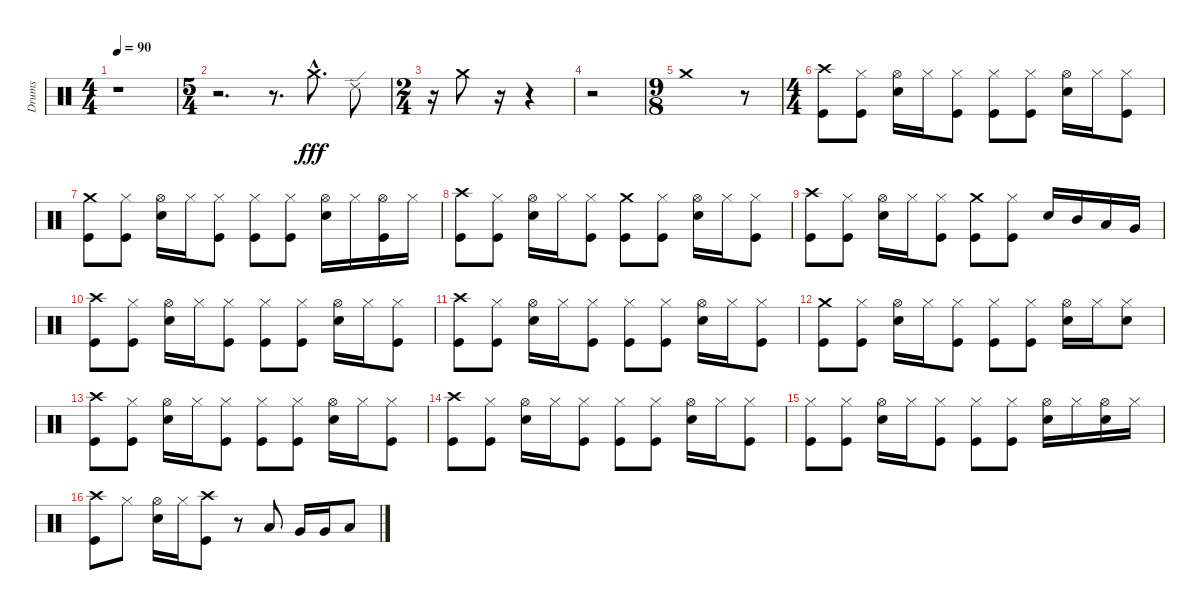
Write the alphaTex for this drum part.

\track ("Drums" "Drums") {instrument percussion}
\staff {score}
\articulation defaults
\ts (4 4)
\tempo 90
\clef neutral
\ks c
r.1{dy fff} |
\ts (5 4)
r.2{d} r.8{d} "Crash medium (hit)"{hac}.8{d} "Ride (edge) 2".8 |
\ts (2 4)
r.16 "Crash medium (hit)".8 r.16 r.4 |
r.2 |
\ts (9 8)
"Crash medium (hit)".1 r.8 |
\ts (4 4)
("Crash high (hit)" "Kick (hit)").8 ("Hi-Hat (closed)" "Kick (hit)").8 ("Hi-Hat (open)" "Snare (hit) 2").16 "Hi-Hat (closed)".16 ("Hi-Hat (closed)" "Kick (hit)").8 ("Hi-Hat (closed)" "Kick (hit)").8 ("Hi-Hat (closed)" "Kick (hit)").8 ("Hi-Hat (open)" "Snare (hit) 2").16 "Hi-Hat (closed)".16 ("Hi-Hat (closed)" "Kick (hit)").8 |
("Crash medium (hit)" "Kick (hit)").8 ("Hi-Hat (closed)" "Kick (hit)").8 ("Hi-Hat (open)" "Snare (hit) 2").16 "Hi-Hat (closed)".16 ("Hi-Hat (closed)" "Kick (hit)").8 ("Hi-Hat (closed)" "Kick (hit)").8 ("Hi-Hat (closed)" "Kick (hit)").8 ("Hi-Hat (open)" "Snare (hit) 2").16 "Hi-Hat (closed)".16 ("Hi-Hat (open)" "Kick (hit)").16 "Hi-Hat (closed)".16 |
("Crash high (hit)" "Kick (hit)").8 ("Hi-Hat (closed)" "Kick (hit)").8 ("Hi-Hat (open)" "Snare (hit) 2").16 "Hi-Hat (closed)".16 ("Hi-Hat (closed)" "Kick (hit)").8 ("Crash medium (hit)" "Kick (hit)").8 ("Hi-Hat (closed)" "Kick (hit)").8 ("Hi-Hat (open)" "Snare (hit) 2").16 "Hi-Hat (closed)".16 ("Hi-Hat (closed)" "Kick (hit)").8 |
("Crash high (hit)" "Kick (hit)").8 ("Hi-Hat (closed)" "Kick (hit)").8 ("Hi-Hat (open)" "Snare (hit) 2").16 "Hi-Hat (closed)".16 ("Hi-Hat (closed)" "Kick (hit)").8 ("Crash medium (hit)" "Kick (hit)").8 ("Hi-Hat (closed)" "Kick (hit)").8 "Snare (hit) 2".16 "Mid Tom (hit)".16 "Low Tom (hit)".16 "Very Low Tom (hit)".16 |
("Crash high (hit)" "Kick (hit)").8 ("Hi-Hat (closed)" "Kick (hit)").8 ("Hi-Hat (open)" "Snare (hit) 2").16 "Hi-Hat (closed)".16 ("Hi-Hat (closed)" "Kick (hit)").8 ("Hi-Hat (closed)" "Kick (hit)").8 ("Hi-Hat (closed)" "Kick (hit)").8 ("Hi-Hat (open)" "Snare (hit) 2").16 "Hi-Hat (closed)".16 ("Hi-Hat (closed)" "Kick (hit)").8 |
("Crash high (hit)" "Kick (hit)").8 ("Hi-Hat (closed)" "Kick (hit)").8 ("Hi-Hat (open)" "Snare (hit) 2").16 "Hi-Hat (closed)".16 ("Hi-Hat (closed)" "Kick (hit)").8 ("Hi-Hat (closed)" "Kick (hit)").8 ("Hi-Hat (closed)" "Kick (hit)").8 ("Hi-Hat (open)" "Snare (hit) 2").16 "Hi-Hat (closed)".16 ("Hi-Hat (closed)" "Kick (hit)").8 |
("Crash medium (hit)" "Kick (hit)").8 ("Hi-Hat (closed)" "Kick (hit)").8 ("Hi-Hat (open)" "Snare (hit) 2").16 "Hi-Hat (closed)".16 ("Hi-Hat (closed)" "Kick (hit)").8 ("Hi-Hat (closed)" "Kick (hit)").8 ("Hi-Hat (closed)" "Kick (hit)").8 ("Hi-Hat (open)" "Snare (hit) 2").16 "Hi-Hat (closed)".16 ("Hi-Hat (closed)" "Snare (hit) 2").8 |
("Crash high (hit)" "Kick (hit)").8 ("Hi-Hat (closed)" "Kick (hit)").8 ("Hi-Hat (open)" "Snare (hit) 2").16 "Hi-Hat (closed)".16 ("Hi-Hat (closed)" "Kick (hit)").8 ("Hi-Hat (closed)" "Kick (hit)").8 ("Hi-Hat (closed)" "Kick (hit)").8 ("Hi-Hat (open)" "Snare (hit) 2").16 "Hi-Hat (closed)".16 ("Hi-Hat (closed)" "Kick (hit)").8 |
("Crash high (hit)" "Kick (hit)").8 ("Hi-Hat (closed)" "Kick (hit)").8 ("Hi-Hat (open)" "Snare (hit) 2").16 "Hi-Hat (closed)".16 ("Hi-Hat (closed)" "Kick (hit)").8 ("Hi-Hat (closed)" "Kick (hit)").8 ("Hi-Hat (closed)" "Kick (hit)").8 ("Hi-Hat (open)" "Snare (hit) 2").16 "Hi-Hat (closed)".16 ("Hi-Hat (closed)" "Kick (hit)").8 |
("Hi-Hat (closed)" "Kick (hit)").8 ("Hi-Hat (closed)" "Kick (hit)").8 ("Hi-Hat (open)" "Snare (hit) 2").16 "Hi-Hat (closed)".16 ("Hi-Hat (closed)" "Kick (hit)").8 ("Hi-Hat (closed)" "Kick (hit)").8 ("Hi-Hat (closed)" "Kick (hit)").8 ("Hi-Hat (open)" "Snare (hit) 2").16 "Hi-Hat (closed)".16 ("Hi-Hat (open)" "Snare (hit) 2").16 "Hi-Hat (closed)".16 |
("Crash high (hit)" "Kick (hit)").8 "Hi-Hat (closed)".8 ("Hi-Hat (open)" "Snare (hit) 2").16 "Hi-Hat (closed)".16 ("Crash high (hit)" "Kick (hit)").8 r.8 "Low Tom (hit)".8 "Very Low Tom (hit)".16 "Very Low Tom (hit)".16 "Low Floor Tom (hit)".8
